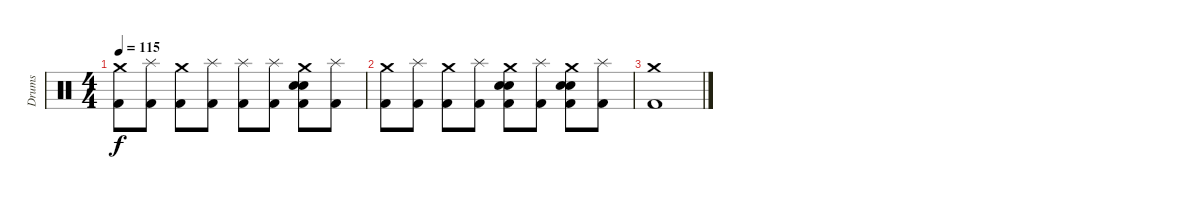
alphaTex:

\track ("Drums" "Drums") {instrument percussion}
\staff {score}
\articulation defaults
\ts (4 4)
\tempo 115
\clef neutral
\ks c
("Crash medium (hit)" "Kick (hit) 2").8{dy f} ("Splash (hit)" "Kick (hit) 2").8 ("Crash medium (hit)" "Kick (hit) 2").8 ("Splash (hit)" "Kick (hit) 2").8 ("Splash (hit)" "Kick (hit) 2").8 ("Splash (hit)" "Kick (hit) 2").8 ("Crash medium (hit)" "Electric Snare (hit)" "Snare (hit) 2" "Kick (hit) 2").8 ("Splash (hit)" "Kick (hit) 2").8 |
("Crash medium (hit)" "Kick (hit) 2").8 ("Splash (hit)" "Kick (hit) 2").8 ("Crash medium (hit)" "Kick (hit) 2").8 ("Splash (hit)" "Kick (hit) 2").8 ("Crash medium (hit)" "Electric Snare (hit)" "Snare (hit) 2" "Kick (hit) 2").8 ("Splash (hit)" "Kick (hit) 2").8 ("Crash medium (hit)" "Electric Snare (hit)" "Snare (hit) 2" "Kick (hit) 2").8 ("Splash (hit)" "Kick (hit) 2").8 |
("Crash medium (hit)" "Kick (hit) 2").1
